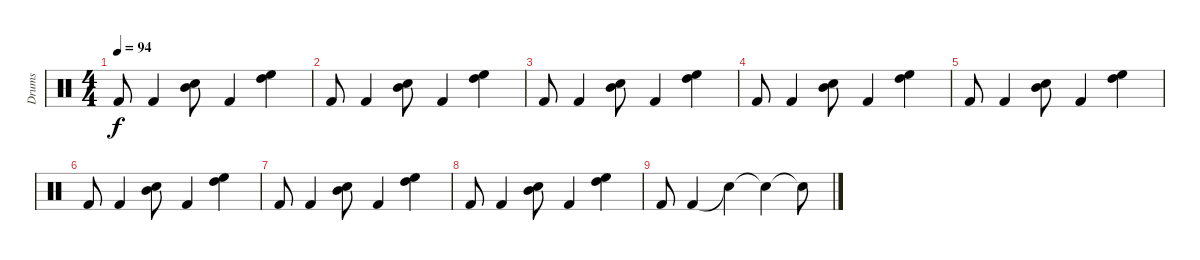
\track ("Drums" "Drums") {instrument percussion}
\staff {score}
\articulation defaults
\ts (4 4)
\tempo 94
\clef neutral
\ks c "Kick (hit) 2".8{dy f} "Kick (hit) 2".4
("Mid Tom (hit)" "Electric Snare (hit)").8 "Kick (hit) 2".4 ("High Tom (hit)" "High Floor Tom (hit)").4 |
"Kick (hit) 2".8 "Kick (hit) 2".4 ("Mid Tom (hit)" "Electric Snare (hit)").8 "Kick (hit) 2".4 ("High Tom (hit)" "High Floor Tom (hit)").4 |
"Kick (hit) 2".8 "Kick (hit) 2".4 ("Mid Tom (hit)" "Electric Snare (hit)").8 "Kick (hit) 2".4 ("High Tom (hit)" "High Floor Tom (hit)").4 |
"Kick (hit) 2".8 "Kick (hit) 2".4 ("Mid Tom (hit)" "Electric Snare (hit)").8 "Kick (hit) 2".4 ("High Tom (hit)" "High Floor Tom (hit)").4 |
"Kick (hit) 2".8 "Kick (hit) 2".4 ("Mid Tom (hit)" "Electric Snare (hit)").8 "Kick (hit) 2".4 ("High Tom (hit)" "High Floor Tom (hit)").4 |
"Kick (hit) 2".8 "Kick (hit) 2".4 ("Mid Tom (hit)" "Electric Snare (hit)").8 "Kick (hit) 2".4 ("High Tom (hit)" "High Floor Tom (hit)").4 |
"Kick (hit) 2".8 "Kick (hit) 2".4 ("Mid Tom (hit)" "Electric Snare (hit)").8 "Kick (hit) 2".4 ("High Tom (hit)" "High Floor Tom (hit)").4 |
"Kick (hit) 2".8 "Kick (hit) 2".4 ("Mid Tom (hit)" "Electric Snare (hit)").8 "Kick (hit) 2".4 ("High Tom (hit)" "High Floor Tom (hit)").4 |
"Kick (hit) 2".8 "Kick (hit) 2".4 "Snare (hit)"{t}.4 "Snare (hit)"{t}.4 "Snare (hit)"{t}.8
